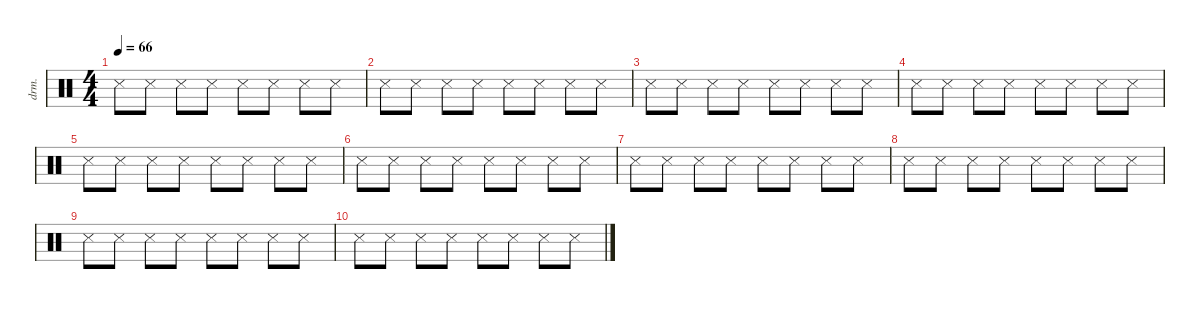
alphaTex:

\defaultSystemsLayout 4
\hideDynamics
\bracketExtendMode nobrackets
\otherSystemsTrackNameOrientation horizontal
\track ("Drumkit" "drm.") {instrument percussion}
\staff {score}
\articulation defaults
\ts (4 4)
\tempo 66
\clef neutral
\ks c "Metronome (hit)".8{dy mf} "Metronome (hit)".8 "Metronome (hit)".8 "Metronome (hit)".8 "Metronome (hit)".8 "Metronome (hit)".8 "Metronome (hit)".8 "Metronome (hit)".8
|
"Metronome (hit)".8 "Metronome (hit)".8 "Metronome (hit)".8 "Metronome (hit)".8 "Metronome (hit)".8 "Metronome (hit)".8 "Metronome (hit)".8 "Metronome (hit)".8 |
"Metronome (hit)".8 "Metronome (hit)".8 "Metronome (hit)".8 "Metronome (hit)".8 "Metronome (hit)".8 "Metronome (hit)".8 "Metronome (hit)".8 "Metronome (hit)".8 |
"Metronome (hit)".8 "Metronome (hit)".8 "Metronome (hit)".8 "Metronome (hit)".8 "Metronome (hit)".8 "Metronome (hit)".8 "Metronome (hit)".8 "Metronome (hit)".8 |
"Metronome (hit)".8 "Metronome (hit)".8 "Metronome (hit)".8 "Metronome (hit)".8 "Metronome (hit)".8 "Metronome (hit)".8 "Metronome (hit)".8 "Metronome (hit)".8 |
"Metronome (hit)".8 "Metronome (hit)".8 "Metronome (hit)".8 "Metronome (hit)".8 "Metronome (hit)".8 "Metronome (hit)".8 "Metronome (hit)".8 "Metronome (hit)".8 |
"Metronome (hit)".8 "Metronome (hit)".8 "Metronome (hit)".8 "Metronome (hit)".8 "Metronome (hit)".8 "Metronome (hit)".8 "Metronome (hit)".8 "Metronome (hit)".8 |
"Metronome (hit)".8 "Metronome (hit)".8 "Metronome (hit)".8 "Metronome (hit)".8 "Metronome (hit)".8 "Metronome (hit)".8 "Metronome (hit)".8 "Metronome (hit)".8 |
"Metronome (hit)".8 "Metronome (hit)".8 "Metronome (hit)".8 "Metronome (hit)".8 "Metronome (hit)".8 "Metronome (hit)".8 "Metronome (hit)".8 "Metronome (hit)".8 |
"Metronome (hit)".8 "Metronome (hit)".8 "Metronome (hit)".8 "Metronome (hit)".8 "Metronome (hit)".8 "Metronome (hit)".8 "Metronome (hit)".8 "Metronome (hit)".8
